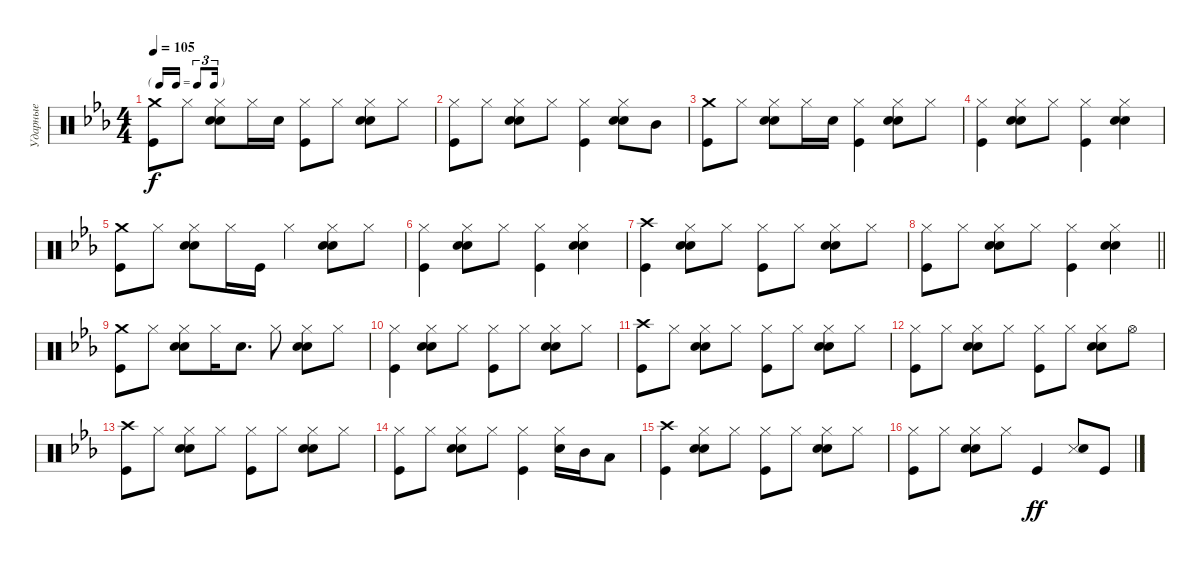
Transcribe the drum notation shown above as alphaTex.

\track ("Ударные" "Ударные") {instrument percussion}
\staff {score}
\articulation defaults
\ts (4 4)
\tf triplet16th
\tempo 105
\clef neutral
\ks cminor
("Kick (hit)" "Crash medium (hit)").8{dy f} "Hi-Hat (closed)".8 ("Snare (hit) 2" "Hi-Hat (closed)" "Hand Clap (hit)").8 "Hi-Hat (closed)".16 "Snare (hit) 2".16 ("Hi-Hat (closed)" "Kick (hit)").8 "Hi-Hat (closed)".8 ("Snare (hit) 2" "Hi-Hat (closed)" "Hand Clap (hit)").8 "Hi-Hat (closed)".8 |
("Kick (hit)" "Hi-Hat (closed)").8 "Hi-Hat (closed)".8 ("Snare (hit) 2" "Hi-Hat (closed)" "Hand Clap (hit)").8 "Hi-Hat (closed)".8 ("Kick (hit)" "Hi-Hat (closed)").4 ("Snare (hit) 2" "Hi-Hat (closed)" "Hand Clap (hit)").8 "Mid Tom (hit)".8 |
("Kick (hit)" "Crash medium (hit)").8 "Hi-Hat (closed)".8 ("Snare (hit) 2" "Hi-Hat (closed)" "Hand Clap (hit)").8 "Hi-Hat (closed)".16 "Snare (hit) 2".16 ("Hi-Hat (closed)" "Kick (hit)").4 ("Snare (hit) 2" "Hi-Hat (closed)" "Hand Clap (hit)").8 "Hi-Hat (closed)".8 |
("Kick (hit)" "Hi-Hat (closed)").4 ("Snare (hit) 2" "Hi-Hat (closed)" "Hand Clap (hit)").8 "Hi-Hat (closed)".8 ("Kick (hit)" "Hi-Hat (closed)").4 ("Snare (hit) 2" "Hi-Hat (closed)" "Hand Clap (hit)").4 |
("Kick (hit)" "Crash medium (hit)").8 "Hi-Hat (closed)".8 ("Snare (hit) 2" "Hi-Hat (closed)" "Hand Clap (hit)").8 "Hi-Hat (closed)".16 "Kick (hit)".16 "Hi-Hat (closed)".4 ("Snare (hit) 2" "Hi-Hat (closed)" "Hand Clap (hit)").8 "Hi-Hat (closed)".8 |
("Kick (hit)" "Hi-Hat (closed)").4 ("Snare (hit) 2" "Hi-Hat (closed)" "Hand Clap (hit)").8 "Hi-Hat (closed)".8 ("Kick (hit)" "Hi-Hat (closed)").4 ("Snare (hit) 2" "Hi-Hat (closed)" "Hand Clap (hit)").4 |
("Kick (hit)" "Crash high (hit)").4 ("Snare (hit) 2" "Hi-Hat (closed)" "Hand Clap (hit)").8 "Hi-Hat (closed)".8 ("Kick (hit)" "Hi-Hat (closed)").8 "Hi-Hat (closed)".8 ("Snare (hit) 2" "Hi-Hat (closed)" "Hand Clap (hit)").8 "Hi-Hat (closed)".8 |
\barLineRight lightlight
("Kick (hit)" "Hi-Hat (closed)").8 "Hi-Hat (closed)".8 ("Snare (hit) 2" "Hi-Hat (closed)" "Hand Clap (hit)").8 "Hi-Hat (closed)".8 ("Kick (hit)" "Hi-Hat (closed)").4 ("Snare (hit) 2" "Hi-Hat (closed)" "Hand Clap (hit)").4 |
("Kick (hit)" "Crash medium (hit)").8 "Hi-Hat (closed)".8 ("Snare (hit) 2" "Hi-Hat (closed)" "Hand Clap (hit)").8 "Hi-Hat (closed)".16 "Snare (hit) 2".8{d} "Hi-Hat (closed)".8 ("Snare (hit) 2" "Hi-Hat (closed)" "Hand Clap (hit)").8 "Hi-Hat (closed)".8 |
("Kick (hit)" "Hi-Hat (closed)").4 ("Snare (hit) 2" "Hi-Hat (closed)" "Hand Clap (hit)").8 "Hi-Hat (closed)".8 ("Kick (hit)" "Hi-Hat (closed)").8 "Hi-Hat (closed)".8 ("Snare (hit) 2" "Hi-Hat (closed)" "Hand Clap (hit)").8 "Hi-Hat (closed)".8 |
("Kick (hit)" "Crash high (hit)").8 "Hi-Hat (closed)".8 ("Snare (hit) 2" "Hi-Hat (closed)" "Hand Clap (hit)").8 "Hi-Hat (closed)".8 ("Kick (hit)" "Hi-Hat (closed)").8 "Hi-Hat (closed)".8 ("Snare (hit) 2" "Hi-Hat (closed)" "Hand Clap (hit)").8 "Hi-Hat (closed)".8 |
("Kick (hit)" "Hi-Hat (closed)").8 "Hi-Hat (closed)".8 ("Snare (hit) 2" "Hi-Hat (closed)" "Hand Clap (hit)").8 "Hi-Hat (closed)".8 ("Kick (hit)" "Hi-Hat (closed)").8 "Hi-Hat (closed)".8 ("Snare (hit) 2" "Hi-Hat (closed)" "Hand Clap (hit)").8 "Hi-Hat (open)".8 |
("Kick (hit)" "Crash high (hit)").8 "Hi-Hat (closed)".8 ("Snare (hit) 2" "Hi-Hat (closed)" "Hand Clap (hit)").8 "Hi-Hat (closed)".8 ("Kick (hit)" "Hi-Hat (closed)").8 "Hi-Hat (closed)".8 ("Snare (hit) 2" "Hi-Hat (closed)" "Hand Clap (hit)").8 "Hi-Hat (closed)".8 |
("Kick (hit)" "Hi-Hat (closed)").8 "Hi-Hat (closed)".8 ("Snare (hit) 2" "Hi-Hat (closed)" "Hand Clap (hit)").8 "Hi-Hat (closed)".8 ("Kick (hit)" "Hi-Hat (closed)").4 ("Snare (hit) 2" "Hi-Hat (closed)").16 "Mid Tom (hit)".16 "Low Tom (hit)".8 |
("Kick (hit)" "Crash high (hit)").4 ("Snare (hit) 2" "Hi-Hat (closed)" "Hand Clap (hit)").8 "Hi-Hat (closed)".8 ("Kick (hit)" "Hi-Hat (closed)").8 "Hi-Hat (closed)".8 ("Snare (hit) 2" "Hi-Hat (closed)" "Hand Clap (hit)").8 "Hi-Hat (closed)".8 |
("Kick (hit)" "Hi-Hat (closed)").8 "Hi-Hat (closed)".8 ("Snare (hit) 2" "Hi-Hat (closed)" "Hand Clap (hit)").8 "Hi-Hat (closed)".8 "Kick (hit)".4{dy ff} ("Snare (side stick) 3" "Hand Clap (hit)").8 "Kick (hit)".8
